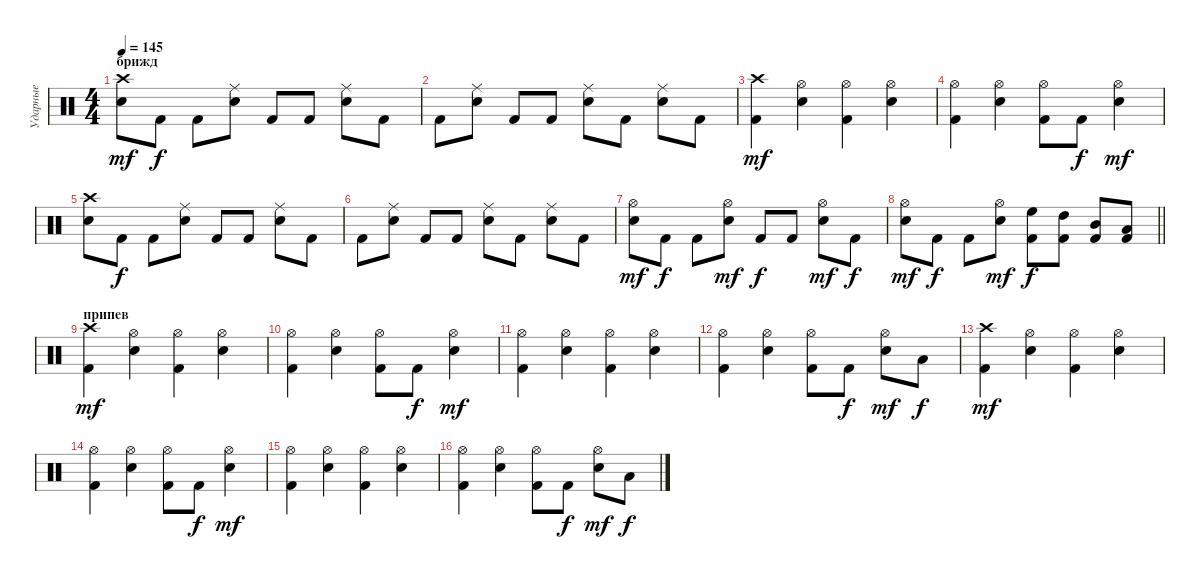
\track ("Ударные" "Ударные") {instrument percussion}
\staff {score}
\articulation defaults
\ts (4 4)
\section ("" "брижд")
\tempo 145
\clef neutral
\ks c
("Snare (hit) 2" "Crash high (hit)").8{dy mf} "Kick (hit) 2".8{dy f} "Kick (hit) 2".8 ("Snare (hit) 2" "Ride (middle)").8 "Kick (hit) 2".8 "Kick (hit) 2".8 ("Snare (hit) 2" "Ride (middle)").8 "Kick (hit) 2".8 |
"Kick (hit) 2".8 ("Snare (hit) 2" "Ride (middle)").8 "Kick (hit) 2".8 "Kick (hit) 2".8 ("Snare (hit) 2" "Ride (middle)").8 "Kick (hit) 2".8 ("Snare (hit) 2" "Ride (middle)").8 "Kick (hit) 2".8 |
("Kick (hit) 2" "Crash high (hit)").4{dy mf} ("Snare (hit) 2" "Hi-Hat (open)").4 ("Kick (hit) 2" "Hi-Hat (open)").4 ("Snare (hit) 2" "Hi-Hat (open)").4 |
("Kick (hit) 2" "Hi-Hat (open)").4 ("Snare (hit) 2" "Hi-Hat (open)").4 ("Kick (hit) 2" "Hi-Hat (open)").8 "Kick (hit) 2".8{dy f} ("Snare (hit) 2" "Hi-Hat (open)").4{dy mf} |
("Snare (hit) 2" "Crash high (hit)").8 "Kick (hit) 2".8{dy f} "Kick (hit) 2".8 ("Snare (hit) 2" "Ride (middle)").8 "Kick (hit) 2".8 "Kick (hit) 2".8 ("Snare (hit) 2" "Ride (middle)").8 "Kick (hit) 2".8 |
"Kick (hit) 2".8 ("Snare (hit) 2" "Ride (middle)").8 "Kick (hit) 2".8 "Kick (hit) 2".8 ("Snare (hit) 2" "Ride (middle)").8 "Kick (hit) 2".8 ("Snare (hit) 2" "Ride (middle)").8 "Kick (hit) 2".8 |
("Snare (hit) 2" "Hi-Hat (open)").8{dy mf} "Kick (hit) 2".8{dy f} "Kick (hit) 2".8 ("Snare (hit) 2" "Hi-Hat (open)").8{dy mf} "Kick (hit) 2".8{dy f} "Kick (hit) 2".8 ("Snare (hit) 2" "Hi-Hat (open)").8{dy mf} "Kick (hit) 2".8{dy f} |
\barLineRight lightlight
("Snare (hit) 2" "Hi-Hat (open)").8{dy mf} "Kick (hit) 2".8{dy f} "Kick (hit) 2".8 ("Snare (hit) 2" "Hi-Hat (open)").8{dy mf} ("Kick (hit) 2" "High Floor Tom (hit)").8{dy f} ("Kick (hit) 2" "High Tom (hit)").8 ("Kick (hit) 2" "Mid Tom (hit)").8 ("Kick (hit) 2" "Low Tom (hit)").8 |
\section ("" "припев")
("Kick (hit) 2" "Crash high (hit)").4{dy mf} ("Snare (hit) 2" "Hi-Hat (open)").4 ("Kick (hit) 2" "Hi-Hat (open)").4 ("Snare (hit) 2" "Hi-Hat (open)").4 |
("Kick (hit) 2" "Hi-Hat (open)").4 ("Snare (hit) 2" "Hi-Hat (open)").4 ("Kick (hit) 2" "Hi-Hat (open)").8 "Kick (hit) 2".8{dy f} ("Snare (hit) 2" "Hi-Hat (open)").4{dy mf} |
("Kick (hit) 2" "Hi-Hat (open)").4 ("Snare (hit) 2" "Hi-Hat (open)").4 ("Kick (hit) 2" "Hi-Hat (open)").4 ("Snare (hit) 2" "Hi-Hat (open)").4 |
("Kick (hit) 2" "Hi-Hat (open)").4 ("Snare (hit) 2" "Hi-Hat (open)").4 ("Kick (hit) 2" "Hi-Hat (open)").8 "Kick (hit) 2".8{dy f} ("Snare (hit) 2" "Hi-Hat (open)").8{dy mf} "Low Floor Tom (hit)".8{dy f} |
("Kick (hit) 2" "Crash high (hit)").4{dy mf} ("Snare (hit) 2" "Hi-Hat (open)").4 ("Kick (hit) 2" "Hi-Hat (open)").4 ("Snare (hit) 2" "Hi-Hat (open)").4 |
("Kick (hit) 2" "Hi-Hat (open)").4 ("Snare (hit) 2" "Hi-Hat (open)").4 ("Kick (hit) 2" "Hi-Hat (open)").8 "Kick (hit) 2".8{dy f} ("Snare (hit) 2" "Hi-Hat (open)").4{dy mf} |
("Kick (hit) 2" "Hi-Hat (open)").4 ("Snare (hit) 2" "Hi-Hat (open)").4 ("Kick (hit) 2" "Hi-Hat (open)").4 ("Snare (hit) 2" "Hi-Hat (open)").4 |
("Kick (hit) 2" "Hi-Hat (open)").4 ("Snare (hit) 2" "Hi-Hat (open)").4 ("Kick (hit) 2" "Hi-Hat (open)").8 "Kick (hit) 2".8{dy f} ("Snare (hit) 2" "Hi-Hat (open)").8{dy mf} "Low Floor Tom (hit)".8{dy f}
